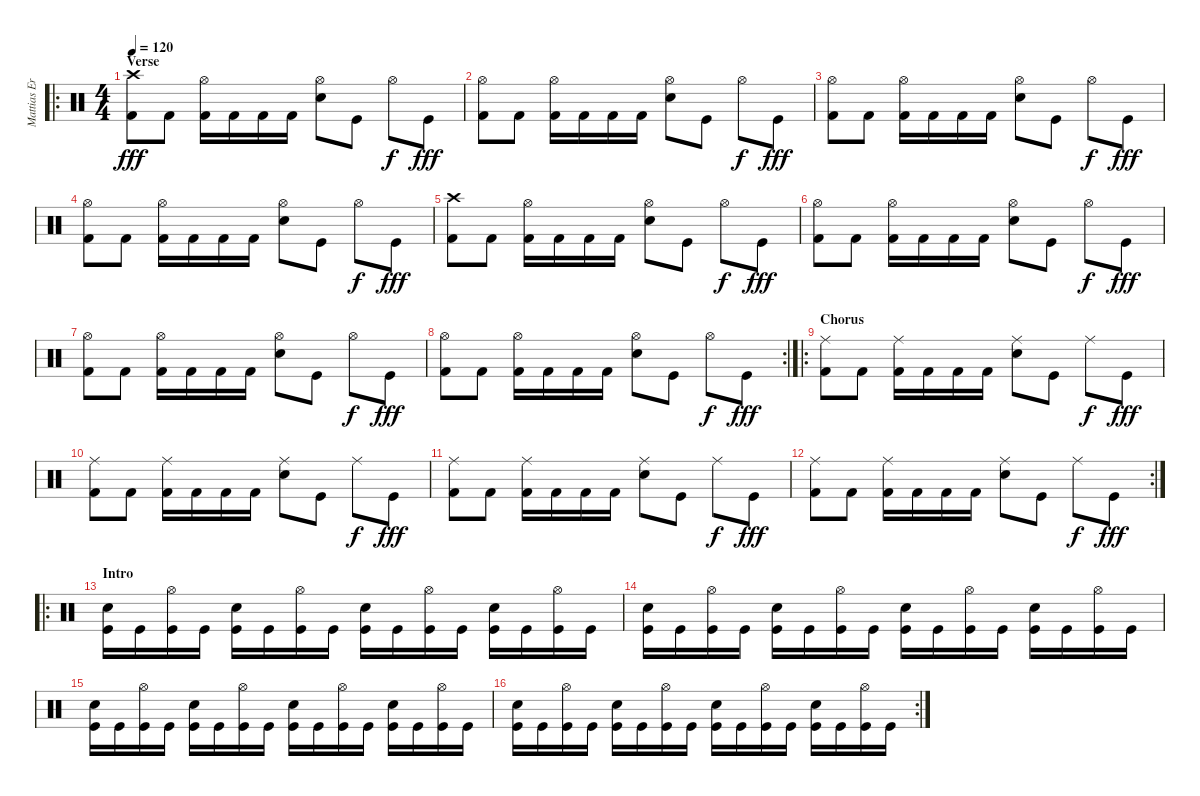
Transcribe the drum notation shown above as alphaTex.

\track ("Mattias Eriksson" "Mattias Er") {instrument percussion}
\staff {score}
\articulation defaults
\ro
\ts (4 4)
\section ("" "Verse")
\tempo 120
\clef neutral
\ks c
("Crash high (hit)" "Kick (hit) 2").8{dy fff} "Kick (hit) 2".8 ("Hi-Hat (open)" "Kick (hit) 2").16 "Kick (hit) 2".16 "Kick (hit) 2".16 "Kick (hit) 2".16 ("Hi-Hat (open)" "Electric Snare (hit)").8 "Kick (hit)".8 "Hi-Hat (open)".8{dy f} "Kick (hit)".8{dy fff} |
("Hi-Hat (open)" "Kick (hit) 2").8 "Kick (hit) 2".8 ("Hi-Hat (open)" "Kick (hit) 2").16 "Kick (hit) 2".16 "Kick (hit) 2".16 "Kick (hit) 2".16 ("Hi-Hat (open)" "Electric Snare (hit)").8 "Kick (hit)".8 "Hi-Hat (open)".8{dy f} "Kick (hit)".8{dy fff} |
("Hi-Hat (open)" "Kick (hit) 2").8 "Kick (hit) 2".8 ("Hi-Hat (open)" "Kick (hit) 2").16 "Kick (hit) 2".16 "Kick (hit) 2".16 "Kick (hit) 2".16 ("Hi-Hat (open)" "Electric Snare (hit)").8 "Kick (hit)".8 "Hi-Hat (open)".8{dy f} "Kick (hit)".8{dy fff} |
("Hi-Hat (open)" "Kick (hit) 2").8 "Kick (hit) 2".8 ("Hi-Hat (open)" "Kick (hit) 2").16 "Kick (hit) 2".16 "Kick (hit) 2".16 "Kick (hit) 2".16 ("Hi-Hat (open)" "Electric Snare (hit)").8 "Kick (hit)".8 "Hi-Hat (open)".8{dy f} "Kick (hit)".8{dy fff} |
("Crash high (hit)" "Kick (hit) 2").8 "Kick (hit) 2".8 ("Hi-Hat (open)" "Kick (hit) 2").16 "Kick (hit) 2".16 "Kick (hit) 2".16 "Kick (hit) 2".16 ("Hi-Hat (open)" "Electric Snare (hit)").8 "Kick (hit)".8 "Hi-Hat (open)".8{dy f} "Kick (hit)".8{dy fff} |
("Hi-Hat (open)" "Kick (hit) 2").8 "Kick (hit) 2".8 ("Hi-Hat (open)" "Kick (hit) 2").16 "Kick (hit) 2".16 "Kick (hit) 2".16 "Kick (hit) 2".16 ("Hi-Hat (open)" "Electric Snare (hit)").8 "Kick (hit)".8 "Hi-Hat (open)".8{dy f} "Kick (hit)".8{dy fff} |
("Hi-Hat (open)" "Kick (hit) 2").8 "Kick (hit) 2".8 ("Hi-Hat (open)" "Kick (hit) 2").16 "Kick (hit) 2".16 "Kick (hit) 2".16 "Kick (hit) 2".16 ("Hi-Hat (open)" "Electric Snare (hit)").8 "Kick (hit)".8 "Hi-Hat (open)".8{dy f} "Kick (hit)".8{dy fff} |
\rc 2
("Hi-Hat (open)" "Kick (hit) 2").8 "Kick (hit) 2".8 ("Hi-Hat (open)" "Kick (hit) 2").16 "Kick (hit) 2".16 "Kick (hit) 2".16 "Kick (hit) 2".16 ("Hi-Hat (open)" "Electric Snare (hit)").8 "Kick (hit)".8 "Hi-Hat (open)".8{dy f} "Kick (hit)".8{dy fff} |
\ro
\section ("" "Chorus")
("Ride (middle)" "Kick (hit) 2").8 "Kick (hit) 2".8 ("Ride (middle)" "Kick (hit) 2").16 "Kick (hit) 2".16 "Kick (hit) 2".16 "Kick (hit) 2".16 ("Ride (middle)" "Electric Snare (hit)").8 "Kick (hit)".8 "Ride (middle)".8{dy f} "Kick (hit)".8{dy fff} |
("Ride (middle)" "Kick (hit) 2").8 "Kick (hit) 2".8 ("Ride (middle)" "Kick (hit) 2").16 "Kick (hit) 2".16 "Kick (hit) 2".16 "Kick (hit) 2".16 ("Ride (middle)" "Electric Snare (hit)").8 "Kick (hit)".8 "Ride (middle)".8{dy f} "Kick (hit)".8{dy fff} |
("Ride (middle)" "Kick (hit) 2").8 "Kick (hit) 2".8 ("Ride (middle)" "Kick (hit) 2").16 "Kick (hit) 2".16 "Kick (hit) 2".16 "Kick (hit) 2".16 ("Ride (middle)" "Electric Snare (hit)").8 "Kick (hit)".8 "Ride (middle)".8{dy f} "Kick (hit)".8{dy fff} |
\rc 2
("Ride (middle)" "Kick (hit) 2").8 "Kick (hit) 2".8 ("Ride (middle)" "Kick (hit) 2").16 "Kick (hit) 2".16 "Kick (hit) 2".16 "Kick (hit) 2".16 ("Ride (middle)" "Electric Snare (hit)").8 "Kick (hit)".8 "Ride (middle)".8{dy f} "Kick (hit)".8{dy fff} |
\ro
\section ("" "Intro")
("Electric Snare (hit)" "Kick (hit)").16 "Kick (hit)".16 ("Hi-Hat (open)" "Kick (hit)").16 "Kick (hit)".16 ("Electric Snare (hit)" "Kick (hit)").16 "Kick (hit)".16 ("Hi-Hat (open)" "Kick (hit)").16 "Kick (hit)".16 ("Electric Snare (hit)" "Kick (hit)").16 "Kick (hit)".16 ("Hi-Hat (open)" "Kick (hit)").16 "Kick (hit)".16 ("Electric Snare (hit)" "Kick (hit)").16 "Kick (hit)".16 ("Hi-Hat (open)" "Kick (hit)").16 "Kick (hit)".16 |
("Electric Snare (hit)" "Kick (hit)").16 "Kick (hit)".16 ("Hi-Hat (open)" "Kick (hit)").16 "Kick (hit)".16 ("Electric Snare (hit)" "Kick (hit)").16 "Kick (hit)".16 ("Hi-Hat (open)" "Kick (hit)").16 "Kick (hit)".16 ("Electric Snare (hit)" "Kick (hit)").16 "Kick (hit)".16 ("Hi-Hat (open)" "Kick (hit)").16 "Kick (hit)".16 ("Electric Snare (hit)" "Kick (hit)").16 "Kick (hit)".16 ("Hi-Hat (open)" "Kick (hit)").16 "Kick (hit)".16 |
("Electric Snare (hit)" "Kick (hit)").16 "Kick (hit)".16 ("Hi-Hat (open)" "Kick (hit)").16 "Kick (hit)".16 ("Electric Snare (hit)" "Kick (hit)").16 "Kick (hit)".16 ("Hi-Hat (open)" "Kick (hit)").16 "Kick (hit)".16 ("Electric Snare (hit)" "Kick (hit)").16 "Kick (hit)".16 ("Hi-Hat (open)" "Kick (hit)").16 "Kick (hit)".16 ("Electric Snare (hit)" "Kick (hit)").16 "Kick (hit)".16 ("Hi-Hat (open)" "Kick (hit)").16 "Kick (hit)".16 |
\rc 2
("Electric Snare (hit)" "Kick (hit)").16 "Kick (hit)".16 ("Hi-Hat (open)" "Kick (hit)").16 "Kick (hit)".16 ("Electric Snare (hit)" "Kick (hit)").16 "Kick (hit)".16 ("Hi-Hat (open)" "Kick (hit)").16 "Kick (hit)".16 ("Electric Snare (hit)" "Kick (hit)").16 "Kick (hit)".16 ("Hi-Hat (open)" "Kick (hit)").16 "Kick (hit)".16 ("Electric Snare (hit)" "Kick (hit)").16 "Kick (hit)".16 ("Hi-Hat (open)" "Kick (hit)").16 "Kick (hit)".16
